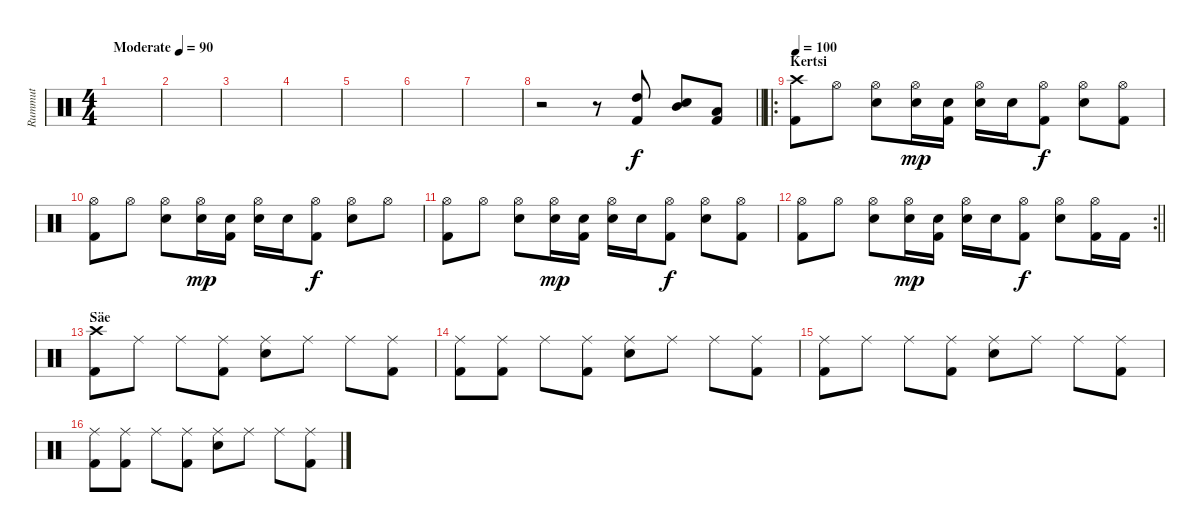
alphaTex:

\track ("Rummut" "Rummut") {instrument percussion}
\staff {score}
\articulation defaults
\ts (4 4)
\tempo (90 "Moderate")
\clef neutral
\ks c
|
|
|
|
|
|
|
\barLineRight lightlight
r.2 r.8 ("High Tom (hit)" "Kick (hit) 2").8 ("Mid Tom (hit)" "Snare (hit) 2").8 ("Low Tom (hit)" "Kick (hit) 2").8 |
\ro
\section ("" "Kertsi")
\tempo 100
("Crash high (hit)" "Kick (hit) 2").8 "Hi-Hat (open)".8 ("Hi-Hat (open)" "Snare (hit) 2").8 ("Hi-Hat (open)" "Snare (hit) 2").16{dy mp} ("Snare (hit) 2" "Kick (hit) 2").16 ("Hi-Hat (open)" "Snare (hit) 2").16 "Snare (hit) 2".16 ("Hi-Hat (open)" "Kick (hit) 2").8{dy f} ("Hi-Hat (open)" "Snare (hit) 2").8 ("Hi-Hat (open)" "Kick (hit) 2").8 |
("Hi-Hat (open)" "Kick (hit) 2").8 "Hi-Hat (open)".8 ("Hi-Hat (open)" "Snare (hit) 2").8 ("Hi-Hat (open)" "Snare (hit) 2").16{dy mp} ("Snare (hit) 2" "Kick (hit) 2").16 ("Hi-Hat (open)" "Snare (hit) 2").16 "Snare (hit) 2".16 ("Hi-Hat (open)" "Kick (hit) 2").8{dy f} ("Hi-Hat (open)" "Snare (hit) 2").8 "Hi-Hat (open)".8 |
("Hi-Hat (open)" "Kick (hit) 2").8 "Hi-Hat (open)".8 ("Hi-Hat (open)" "Snare (hit) 2").8 ("Hi-Hat (open)" "Snare (hit) 2").16{dy mp} ("Snare (hit) 2" "Kick (hit) 2").16 ("Hi-Hat (open)" "Snare (hit) 2").16 "Snare (hit) 2".16 ("Hi-Hat (open)" "Kick (hit) 2").8{dy f} ("Hi-Hat (open)" "Snare (hit) 2").8 ("Hi-Hat (open)" "Kick (hit) 2").8 |
\rc 2
\barLineRight lightlight
("Hi-Hat (open)" "Kick (hit) 2").8 "Hi-Hat (open)".8 ("Hi-Hat (open)" "Snare (hit) 2").8 ("Hi-Hat (open)" "Snare (hit) 2").16{dy mp} ("Snare (hit) 2" "Kick (hit) 2").16 ("Hi-Hat (open)" "Snare (hit) 2").16 "Snare (hit) 2".16 ("Hi-Hat (open)" "Kick (hit) 2").8{dy f} ("Hi-Hat (open)" "Snare (hit) 2").8 ("Hi-Hat (open)" "Kick (hit) 2").16 "Kick (hit) 2".16 |
\section ("" "Säe")
("Crash high (hit)" "Kick (hit) 2").8 "Ride (middle)".8 "Ride (middle)".8 ("Ride (middle)" "Kick (hit) 2").8 ("Ride (middle)" "Snare (hit) 2").8 "Ride (middle)".8 "Ride (middle)".8 ("Ride (middle)" "Kick (hit) 2").8 |
("Ride (middle)" "Kick (hit) 2").8 ("Ride (middle)" "Kick (hit) 2").8 "Ride (middle)".8 ("Ride (middle)" "Kick (hit) 2").8 ("Ride (middle)" "Snare (hit) 2").8 "Ride (middle)".8 "Ride (middle)".8 ("Ride (middle)" "Kick (hit) 2").8 |
("Ride (middle)" "Kick (hit) 2").8 "Ride (middle)".8 "Ride (middle)".8 ("Ride (middle)" "Kick (hit) 2").8 ("Ride (middle)" "Snare (hit) 2").8 "Ride (middle)".8 "Ride (middle)".8 ("Ride (middle)" "Kick (hit) 2").8 |
("Ride (middle)" "Kick (hit) 2").8 ("Ride (middle)" "Kick (hit) 2").8 "Ride (middle)".8 ("Ride (middle)" "Kick (hit) 2").8 ("Ride (middle)" "Snare (hit) 2").8 "Ride (middle)".8 "Ride (middle)".8 ("Ride (middle)" "Kick (hit) 2").8
